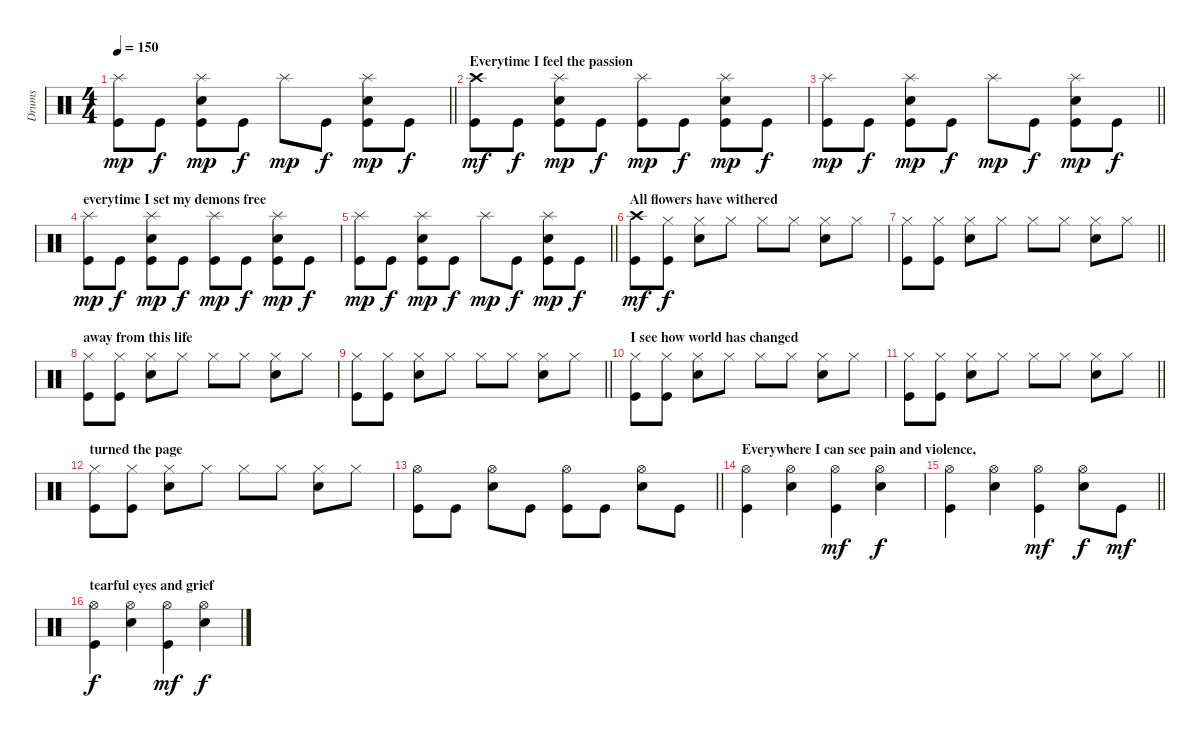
\track ("Drums" "Drums") {instrument percussion}
\staff {score}
\articulation defaults
\ts (4 4)
\tempo 150
\clef neutral
\barLineRight lightlight
\ks c
("Splash (hit)" "Kick (hit)").8{dy mp} "Kick (hit)".8{dy f} ("Splash (hit)" "Snare (hit) 2" "Kick (hit)").8{dy mp} "Kick (hit)".8{dy f} "Splash (hit)".8{dy mp} "Kick (hit)".8{dy f} ("Splash (hit)" "Snare (hit) 2" "Kick (hit)").8{dy mp} "Kick (hit)".8{dy f} |
\section ("" "Everytime I feel the passion")
("Crash high (hit)" "Kick (hit)").8{dy mf} "Kick (hit)".8{dy f} ("Splash (hit)" "Snare (hit) 2" "Kick (hit)").8{dy mp} "Kick (hit)".8{dy f} ("Splash (hit)" "Kick (hit)").8{dy mp} "Kick (hit)".8{dy f} ("Splash (hit)" "Snare (hit) 2" "Kick (hit)").8{dy mp} "Kick (hit)".8{dy f} |
\barLineRight lightlight
("Splash (hit)" "Kick (hit)").8{dy mp} "Kick (hit)".8{dy f} ("Splash (hit)" "Snare (hit) 2" "Kick (hit)").8{dy mp} "Kick (hit)".8{dy f} "Splash (hit)".8{dy mp} "Kick (hit)".8{dy f} ("Splash (hit)" "Snare (hit) 2" "Kick (hit)").8{dy mp} "Kick (hit)".8{dy f} |
\section ("" "everytime I set my demons free")
("Splash (hit)" "Kick (hit)").8{dy mp} "Kick (hit)".8{dy f} ("Splash (hit)" "Snare (hit) 2" "Kick (hit)").8{dy mp} "Kick (hit)".8{dy f} ("Splash (hit)" "Kick (hit)").8{dy mp} "Kick (hit)".8{dy f} ("Splash (hit)" "Snare (hit) 2" "Kick (hit)").8{dy mp} "Kick (hit)".8{dy f} |
\barLineRight lightlight
("Splash (hit)" "Kick (hit)").8{dy mp} "Kick (hit)".8{dy f} ("Splash (hit)" "Snare (hit) 2" "Kick (hit)").8{dy mp} "Kick (hit)".8{dy f} "Splash (hit)".8{dy mp} "Kick (hit)".8{dy f} ("Splash (hit)" "Snare (hit) 2" "Kick (hit)").8{dy mp} "Kick (hit)".8{dy f} |
\section ("" "All flowers have withered")
("Crash high (hit)" "Kick (hit)").8{dy mf} ("Hi-Hat (closed)" "Kick (hit)").8{dy f} ("Hi-Hat (closed)" "Snare (hit) 2").8 "Hi-Hat (closed)".8 "Hi-Hat (closed)".8 "Hi-Hat (closed)".8 ("Hi-Hat (closed)" "Snare (hit) 2").8 "Hi-Hat (closed)".8 |
\barLineRight lightlight
("Hi-Hat (closed)" "Kick (hit)").8 ("Hi-Hat (closed)" "Kick (hit)").8 ("Hi-Hat (closed)" "Snare (hit) 2").8 "Hi-Hat (closed)".8 "Hi-Hat (closed)".8 "Hi-Hat (closed)".8 ("Hi-Hat (closed)" "Snare (hit) 2").8 "Hi-Hat (closed)".8 |
\section ("" "away from this life")
("Hi-Hat (closed)" "Kick (hit)").8 ("Hi-Hat (closed)" "Kick (hit)").8 ("Hi-Hat (closed)" "Snare (hit) 2").8 "Hi-Hat (closed)".8 "Hi-Hat (closed)".8 "Hi-Hat (closed)".8 ("Hi-Hat (closed)" "Snare (hit) 2").8 "Hi-Hat (closed)".8 |
\barLineRight lightlight
("Hi-Hat (closed)" "Kick (hit)").8 ("Hi-Hat (closed)" "Kick (hit)").8 ("Hi-Hat (closed)" "Snare (hit) 2").8 "Hi-Hat (closed)".8 "Hi-Hat (closed)".8 "Hi-Hat (closed)".8 ("Hi-Hat (closed)" "Snare (hit) 2").8 "Hi-Hat (closed)".8 |
\section ("" "I see how world has changed")
("Hi-Hat (closed)" "Kick (hit)").8 ("Hi-Hat (closed)" "Kick (hit)").8 ("Hi-Hat (closed)" "Snare (hit) 2").8 "Hi-Hat (closed)".8 "Hi-Hat (closed)".8 "Hi-Hat (closed)".8 ("Hi-Hat (closed)" "Snare (hit) 2").8 "Hi-Hat (closed)".8 |
\barLineRight lightlight
("Hi-Hat (closed)" "Kick (hit)").8 ("Hi-Hat (closed)" "Kick (hit)").8 ("Hi-Hat (closed)" "Snare (hit) 2").8 "Hi-Hat (closed)".8 "Hi-Hat (closed)".8 "Hi-Hat (closed)".8 ("Hi-Hat (closed)" "Snare (hit) 2").8 "Hi-Hat (closed)".8 |
\section ("" "turned the page")
("Hi-Hat (closed)" "Kick (hit)").8 ("Hi-Hat (closed)" "Kick (hit)").8 ("Hi-Hat (closed)" "Snare (hit) 2").8 "Hi-Hat (closed)".8 "Hi-Hat (closed)".8 "Hi-Hat (closed)".8 ("Hi-Hat (closed)" "Snare (hit) 2").8 "Hi-Hat (closed)".8 |
\barLineRight lightlight
("Hi-Hat (open)" "Kick (hit)").8 "Kick (hit)".8 ("Hi-Hat (open)" "Snare (hit) 2").8 "Kick (hit)".8 ("Hi-Hat (open)" "Kick (hit)").8 "Kick (hit)".8 ("Hi-Hat (open)" "Snare (hit) 2").8 "Kick (hit)".8 |
\section ("" "Everywhere I can see pain and violence,")
("Hi-Hat (open)" "Kick (hit)").4 ("Hi-Hat (open)" "Snare (hit) 2").4 ("Hi-Hat (open)" "Kick (hit)").4{dy mf} ("Hi-Hat (open)" "Snare (hit) 2").4{dy f} |
\barLineRight lightlight
("Hi-Hat (open)" "Kick (hit)").4 ("Hi-Hat (open)" "Snare (hit) 2").4 ("Hi-Hat (open)" "Kick (hit)").4{dy mf} ("Hi-Hat (open)" "Snare (hit) 2").8{dy f} "Kick (hit)".8{dy mf} |
\section ("" "tearful eyes and grief")
("Hi-Hat (open)" "Kick (hit)").4{dy f} ("Hi-Hat (open)" "Snare (hit) 2").4 ("Hi-Hat (open)" "Kick (hit)").4{dy mf} ("Hi-Hat (open)" "Snare (hit) 2").4{dy f}
